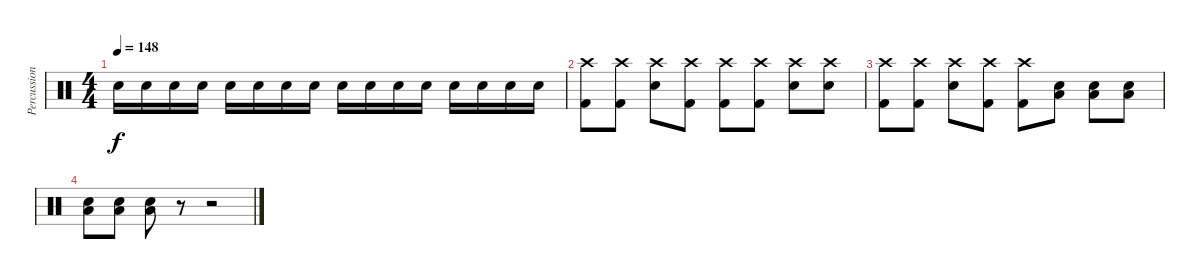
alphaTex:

\track ("Percussion" "Percussion") {instrument percussion}
\staff {score}
\articulation defaults
\ts (4 4)
\tempo 148
\clef neutral
\ks c "Electric Snare (hit)".16{dy f} "Electric Snare (hit)".16 "Electric Snare (hit)".16 "Electric Snare (hit)".16 "Electric Snare (hit)".16 "Electric Snare (hit)".16 "Electric Snare (hit)".16 "Electric Snare (hit)".16 "Electric Snare (hit)".16 "Electric Snare (hit)".16 "Electric Snare (hit)".16 "Electric Snare (hit)".16 "Electric Snare (hit)".16 "Electric Snare (hit)".16 "Electric Snare (hit)".16 "Electric Snare (hit)".16
|
("Crash high (hit)" "Kick (hit) 2").8 ("Crash high (hit)" "Kick (hit) 2").8 ("Crash high (hit)" "Electric Snare (hit)").8 ("Crash high (hit)" "Kick (hit) 2").8 ("Crash high (hit)" "Kick (hit) 2").8 ("Crash high (hit)" "Kick (hit) 2").8 ("Crash high (hit)" "Electric Snare (hit)").8 ("Crash high (hit)" "Electric Snare (hit)").8 |
("Crash high (hit)" "Kick (hit) 2").8 ("Crash high (hit)" "Kick (hit) 2").8 ("Crash high (hit)" "Electric Snare (hit)").8 ("Crash high (hit)" "Kick (hit) 2").8 ("Crash high (hit)" "Kick (hit) 2").8 ("Electric Snare (hit)" "Low Tom (hit)").8 ("Electric Snare (hit)" "Low Tom (hit)").8 ("Electric Snare (hit)" "Low Tom (hit)").8 |
("Electric Snare (hit)" "Low Tom (hit)").8 ("Electric Snare (hit)" "Low Tom (hit)").8 ("Electric Snare (hit)" "Low Tom (hit)").8 r.8 r.2
